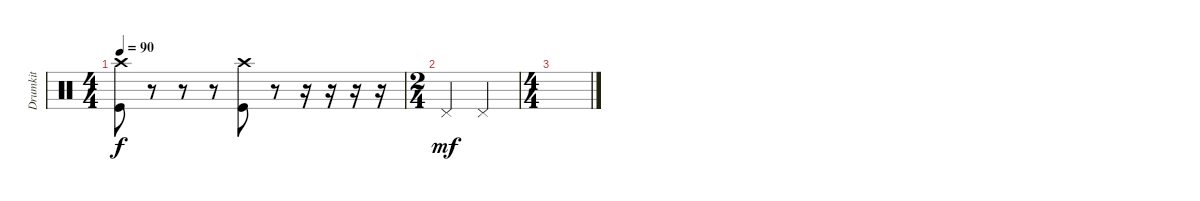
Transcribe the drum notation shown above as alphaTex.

\track ("Drumkit" "Drumkit") {instrument percussion}
\staff {score}
\articulation defaults
\ts (4 4)
\tempo 90
\clef neutral
\ks c
("Kick (hit)" "Crash high (hit)").8{dy f} r.8 r.8 r.8 ("Kick (hit)" "Crash high (hit)").8 r.8 r.16 r.16 r.16 r.16 |
\ts (2 4)
"Pedal Hi-Hat (hit)".4{dy mf} "Pedal Hi-Hat (hit)".4 |
\ts (4 4)
